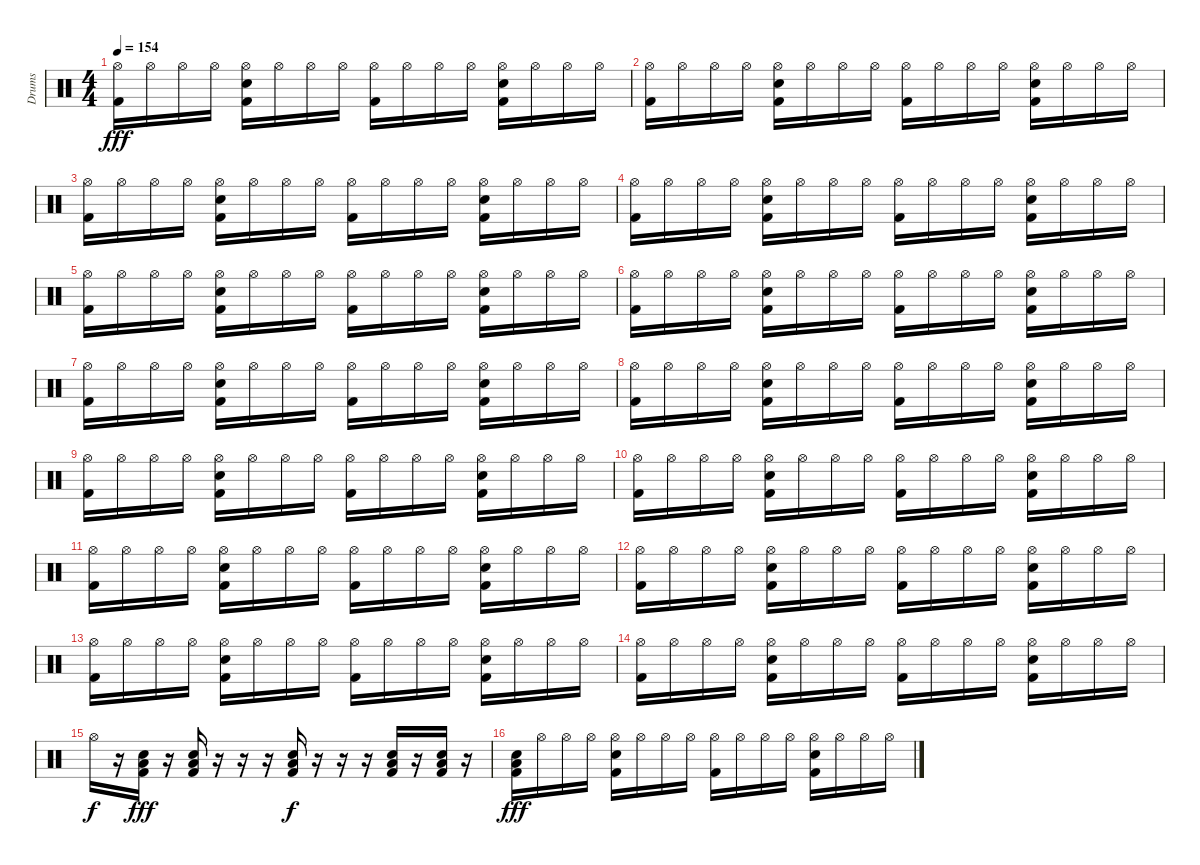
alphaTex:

\track ("Drums" "Drums") {instrument percussion}
\staff {score}
\articulation defaults
\ts (4 4)
\tempo 154
\clef neutral
\ks c
("Hi-Hat (open)" "Kick (hit) 2").16{dy fff} "Hi-Hat (open)".16 "Hi-Hat (open)".16 "Hi-Hat (open)".16 ("Hi-Hat (open)" "Snare (hit) 2" "Kick (hit) 2").16 "Hi-Hat (open)".16 "Hi-Hat (open)".16 "Hi-Hat (open)".16 ("Hi-Hat (open)" "Kick (hit) 2").16 "Hi-Hat (open)".16 "Hi-Hat (open)".16 "Hi-Hat (open)".16 ("Hi-Hat (open)" "Snare (hit) 2" "Kick (hit) 2").16 "Hi-Hat (open)".16 "Hi-Hat (open)".16 "Hi-Hat (open)".16 |
("Hi-Hat (open)" "Kick (hit) 2").16 "Hi-Hat (open)".16 "Hi-Hat (open)".16 "Hi-Hat (open)".16 ("Hi-Hat (open)" "Snare (hit) 2" "Kick (hit) 2").16 "Hi-Hat (open)".16 "Hi-Hat (open)".16 "Hi-Hat (open)".16 ("Hi-Hat (open)" "Kick (hit) 2").16 "Hi-Hat (open)".16 "Hi-Hat (open)".16 "Hi-Hat (open)".16 ("Hi-Hat (open)" "Snare (hit) 2" "Kick (hit) 2").16 "Hi-Hat (open)".16 "Hi-Hat (open)".16 "Hi-Hat (open)".16 |
("Hi-Hat (open)" "Kick (hit) 2").16 "Hi-Hat (open)".16 "Hi-Hat (open)".16 "Hi-Hat (open)".16 ("Hi-Hat (open)" "Snare (hit) 2" "Kick (hit) 2").16 "Hi-Hat (open)".16 "Hi-Hat (open)".16 "Hi-Hat (open)".16 ("Hi-Hat (open)" "Kick (hit) 2").16 "Hi-Hat (open)".16 "Hi-Hat (open)".16 "Hi-Hat (open)".16 ("Hi-Hat (open)" "Snare (hit) 2" "Kick (hit) 2").16 "Hi-Hat (open)".16 "Hi-Hat (open)".16 "Hi-Hat (open)".16 |
("Hi-Hat (open)" "Kick (hit) 2").16 "Hi-Hat (open)".16 "Hi-Hat (open)".16 "Hi-Hat (open)".16 ("Hi-Hat (open)" "Snare (hit) 2" "Kick (hit) 2").16 "Hi-Hat (open)".16 "Hi-Hat (open)".16 "Hi-Hat (open)".16 ("Hi-Hat (open)" "Kick (hit) 2").16 "Hi-Hat (open)".16 "Hi-Hat (open)".16 "Hi-Hat (open)".16 ("Hi-Hat (open)" "Snare (hit) 2" "Kick (hit) 2").16 "Hi-Hat (open)".16 "Hi-Hat (open)".16 "Hi-Hat (open)".16 |
("Hi-Hat (open)" "Kick (hit) 2").16 "Hi-Hat (open)".16 "Hi-Hat (open)".16 "Hi-Hat (open)".16 ("Hi-Hat (open)" "Snare (hit) 2" "Kick (hit) 2").16 "Hi-Hat (open)".16 "Hi-Hat (open)".16 "Hi-Hat (open)".16 ("Hi-Hat (open)" "Kick (hit) 2").16 "Hi-Hat (open)".16 "Hi-Hat (open)".16 "Hi-Hat (open)".16 ("Hi-Hat (open)" "Snare (hit) 2" "Kick (hit) 2").16 "Hi-Hat (open)".16 "Hi-Hat (open)".16 "Hi-Hat (open)".16 |
("Hi-Hat (open)" "Kick (hit) 2").16 "Hi-Hat (open)".16 "Hi-Hat (open)".16 "Hi-Hat (open)".16 ("Hi-Hat (open)" "Snare (hit) 2" "Kick (hit) 2").16 "Hi-Hat (open)".16 "Hi-Hat (open)".16 "Hi-Hat (open)".16 ("Hi-Hat (open)" "Kick (hit) 2").16 "Hi-Hat (open)".16 "Hi-Hat (open)".16 "Hi-Hat (open)".16 ("Hi-Hat (open)" "Snare (hit) 2" "Kick (hit) 2").16 "Hi-Hat (open)".16 "Hi-Hat (open)".16 "Hi-Hat (open)".16 |
("Hi-Hat (open)" "Kick (hit) 2").16 "Hi-Hat (open)".16 "Hi-Hat (open)".16 "Hi-Hat (open)".16 ("Hi-Hat (open)" "Snare (hit) 2" "Kick (hit) 2").16 "Hi-Hat (open)".16 "Hi-Hat (open)".16 "Hi-Hat (open)".16 ("Hi-Hat (open)" "Kick (hit) 2").16 "Hi-Hat (open)".16 "Hi-Hat (open)".16 "Hi-Hat (open)".16 ("Hi-Hat (open)" "Snare (hit) 2" "Kick (hit) 2").16 "Hi-Hat (open)".16 "Hi-Hat (open)".16 "Hi-Hat (open)".16 |
("Hi-Hat (open)" "Kick (hit) 2").16 "Hi-Hat (open)".16 "Hi-Hat (open)".16 "Hi-Hat (open)".16 ("Hi-Hat (open)" "Snare (hit) 2" "Kick (hit) 2").16 "Hi-Hat (open)".16 "Hi-Hat (open)".16 "Hi-Hat (open)".16 ("Hi-Hat (open)" "Kick (hit) 2").16 "Hi-Hat (open)".16 "Hi-Hat (open)".16 "Hi-Hat (open)".16 ("Hi-Hat (open)" "Snare (hit) 2" "Kick (hit) 2").16 "Hi-Hat (open)".16 "Hi-Hat (open)".16 "Hi-Hat (open)".16 |
("Hi-Hat (open)" "Kick (hit) 2").16 "Hi-Hat (open)".16 "Hi-Hat (open)".16 "Hi-Hat (open)".16 ("Hi-Hat (open)" "Snare (hit) 2" "Kick (hit) 2").16 "Hi-Hat (open)".16 "Hi-Hat (open)".16 "Hi-Hat (open)".16 ("Hi-Hat (open)" "Kick (hit) 2").16 "Hi-Hat (open)".16 "Hi-Hat (open)".16 "Hi-Hat (open)".16 ("Hi-Hat (open)" "Snare (hit) 2" "Kick (hit) 2").16 "Hi-Hat (open)".16 "Hi-Hat (open)".16 "Hi-Hat (open)".16 |
("Hi-Hat (open)" "Kick (hit) 2").16 "Hi-Hat (open)".16 "Hi-Hat (open)".16 "Hi-Hat (open)".16 ("Hi-Hat (open)" "Snare (hit) 2" "Kick (hit) 2").16 "Hi-Hat (open)".16 "Hi-Hat (open)".16 "Hi-Hat (open)".16 ("Hi-Hat (open)" "Kick (hit) 2").16 "Hi-Hat (open)".16 "Hi-Hat (open)".16 "Hi-Hat (open)".16 ("Hi-Hat (open)" "Snare (hit) 2" "Kick (hit) 2").16 "Hi-Hat (open)".16 "Hi-Hat (open)".16 "Hi-Hat (open)".16 |
("Hi-Hat (open)" "Kick (hit) 2").16 "Hi-Hat (open)".16 "Hi-Hat (open)".16 "Hi-Hat (open)".16 ("Hi-Hat (open)" "Snare (hit) 2" "Kick (hit) 2").16 "Hi-Hat (open)".16 "Hi-Hat (open)".16 "Hi-Hat (open)".16 ("Hi-Hat (open)" "Kick (hit) 2").16 "Hi-Hat (open)".16 "Hi-Hat (open)".16 "Hi-Hat (open)".16 ("Hi-Hat (open)" "Snare (hit) 2" "Kick (hit) 2").16 "Hi-Hat (open)".16 "Hi-Hat (open)".16 "Hi-Hat (open)".16 |
("Hi-Hat (open)" "Kick (hit) 2").16 "Hi-Hat (open)".16 "Hi-Hat (open)".16 "Hi-Hat (open)".16 ("Hi-Hat (open)" "Snare (hit) 2" "Kick (hit) 2").16 "Hi-Hat (open)".16 "Hi-Hat (open)".16 "Hi-Hat (open)".16 ("Hi-Hat (open)" "Kick (hit) 2").16 "Hi-Hat (open)".16 "Hi-Hat (open)".16 "Hi-Hat (open)".16 ("Hi-Hat (open)" "Snare (hit) 2" "Kick (hit) 2").16 "Hi-Hat (open)".16 "Hi-Hat (open)".16 "Hi-Hat (open)".16 |
("Hi-Hat (open)" "Kick (hit) 2").16 "Hi-Hat (open)".16 "Hi-Hat (open)".16 "Hi-Hat (open)".16 ("Hi-Hat (open)" "Snare (hit) 2" "Kick (hit) 2").16 "Hi-Hat (open)".16 "Hi-Hat (open)".16 "Hi-Hat (open)".16 ("Hi-Hat (open)" "Kick (hit) 2").16 "Hi-Hat (open)".16 "Hi-Hat (open)".16 "Hi-Hat (open)".16 ("Hi-Hat (open)" "Snare (hit) 2" "Kick (hit) 2").16 "Hi-Hat (open)".16 "Hi-Hat (open)".16 "Hi-Hat (open)".16 |
("Hi-Hat (open)" "Kick (hit) 2").16 "Hi-Hat (open)".16 "Hi-Hat (open)".16 "Hi-Hat (open)".16 ("Hi-Hat (open)" "Snare (hit) 2" "Kick (hit) 2").16 "Hi-Hat (open)".16 "Hi-Hat (open)".16 "Hi-Hat (open)".16 ("Hi-Hat (open)" "Kick (hit) 2").16 "Hi-Hat (open)".16 "Hi-Hat (open)".16 "Hi-Hat (open)".16 ("Hi-Hat (open)" "Snare (hit) 2" "Kick (hit) 2").16 "Hi-Hat (open)".16 "Hi-Hat (open)".16 "Hi-Hat (open)".16 |
"Hi-Hat (open)".16{dy f} r.16 ("Low Floor Tom (hit)" "Snare (hit) 2" "Kick (hit) 2").16{dy fff volume 16} r.16 ("Low Floor Tom (hit)" "Snare (hit) 2" "Kick (hit) 2").16 r.16 r.16 r.16 ("Low Floor Tom (hit)" "Snare (hit) 2" "Kick (hit) 2").16{dy f} r.16 r.16 r.16 ("Low Floor Tom (hit)" "Snare (hit) 2" "Kick (hit) 2").16 r.16 ("Low Floor Tom (hit)" "Snare (hit) 2" "Kick (hit) 2").16 r.16 |
("Low Floor Tom (hit)" "Snare (hit) 2" "Kick (hit) 2").16{dy fff volume 14} "Hi-Hat (open)".16 "Hi-Hat (open)".16 "Hi-Hat (open)".16 ("Hi-Hat (open)" "Snare (hit) 2" "Kick (hit) 2").16 "Hi-Hat (open)".16 "Hi-Hat (open)".16 "Hi-Hat (open)".16 ("Hi-Hat (open)" "Kick (hit) 2").16 "Hi-Hat (open)".16 "Hi-Hat (open)".16 "Hi-Hat (open)".16 ("Hi-Hat (open)" "Snare (hit) 2" "Kick (hit) 2").16 "Hi-Hat (open)".16 "Hi-Hat (open)".16 "Hi-Hat (open)".16
